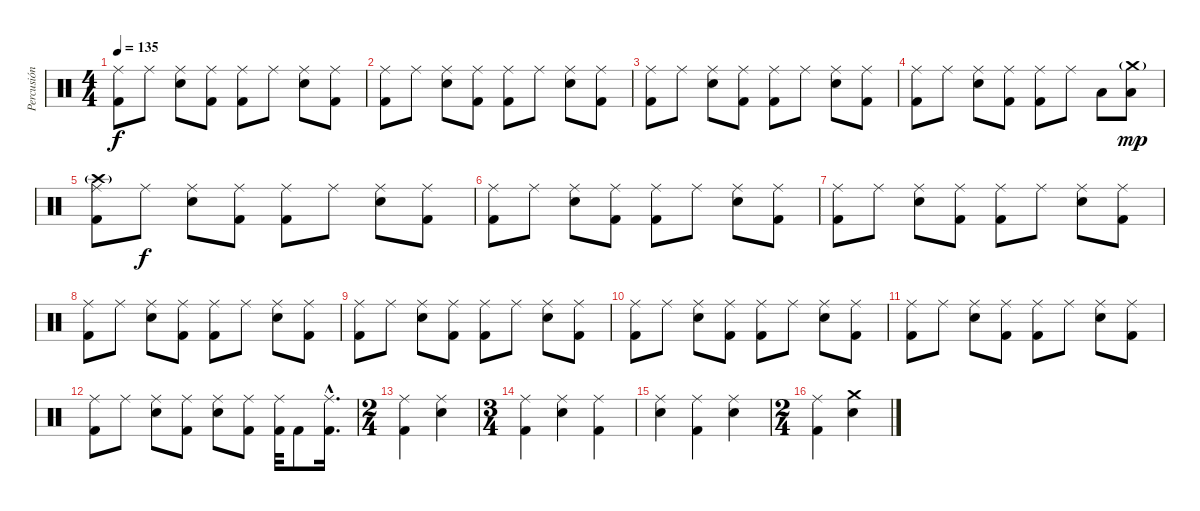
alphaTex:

\track ("Percusión" "Percusión") {instrument percussion}
\staff {score}
\articulation defaults
\ts (4 4)
\tempo 135
\clef neutral
\ks c
("Kick (hit) 2" "Ride (middle)").8{dy f} "Ride (middle)".8 ("Snare (hit) 2" "Ride (middle)").8 ("Kick (hit) 2" "Ride (middle)").8 ("Kick (hit) 2" "Ride (middle)").8 "Ride (middle)".8 ("Snare (hit) 2" "Ride (middle)").8 ("Kick (hit) 2" "Ride (middle)").8 |
("Kick (hit) 2" "Ride (middle)").8 "Ride (middle)".8 ("Snare (hit) 2" "Ride (middle)").8 ("Kick (hit) 2" "Ride (middle)").8 ("Kick (hit) 2" "Ride (middle)").8 "Ride (middle)".8 ("Snare (hit) 2" "Ride (middle)").8 ("Kick (hit) 2" "Ride (middle)").8 |
("Kick (hit) 2" "Ride (middle)").8 "Ride (middle)".8 ("Snare (hit) 2" "Ride (middle)").8 ("Kick (hit) 2" "Ride (middle)").8 ("Kick (hit) 2" "Ride (middle)").8 "Ride (middle)".8 ("Snare (hit) 2" "Ride (middle)").8 ("Kick (hit) 2" "Ride (middle)").8 |
("Kick (hit) 2" "Ride (middle)").8 "Ride (middle)".8 ("Snare (hit) 2" "Ride (middle)").8 ("Kick (hit) 2" "Ride (middle)").8 ("Kick (hit) 2" "Ride (middle)").8 "Ride (middle)".8 "Low Floor Tom (hit)".8 ("Low Floor Tom (hit)" "Crash medium (hit)"{g}).8{dy mp} |
("Kick (hit) 2" "Ride (middle)" "Crash high (hit)"{g}).8 "Ride (middle)".8{dy f} ("Snare (hit) 2" "Ride (middle)").8 ("Kick (hit) 2" "Ride (middle)").8 ("Kick (hit) 2" "Ride (middle)").8 "Ride (middle)".8 ("Snare (hit) 2" "Ride (middle)").8 ("Kick (hit) 2" "Ride (middle)").8 |
("Kick (hit) 2" "Ride (middle)").8 "Ride (middle)".8 ("Snare (hit) 2" "Ride (middle)").8 ("Kick (hit) 2" "Ride (middle)").8 ("Kick (hit) 2" "Ride (middle)").8 "Ride (middle)".8 ("Snare (hit) 2" "Ride (middle)").8 ("Kick (hit) 2" "Ride (middle)").8 |
("Kick (hit) 2" "Ride (middle)").8 "Ride (middle)".8 ("Snare (hit) 2" "Ride (middle)").8 ("Kick (hit) 2" "Ride (middle)").8 ("Kick (hit) 2" "Ride (middle)").8 "Ride (middle)".8 ("Snare (hit) 2" "Ride (middle)").8 ("Kick (hit) 2" "Ride (middle)").8 |
("Kick (hit) 2" "Ride (middle)").8 "Ride (middle)".8 ("Snare (hit) 2" "Ride (middle)").8 ("Kick (hit) 2" "Ride (middle)").8 ("Kick (hit) 2" "Ride (middle)").8 "Ride (middle)".8 ("Snare (hit) 2" "Ride (middle)").8 ("Kick (hit) 2" "Ride (middle)").8 |
("Kick (hit) 2" "Ride (middle)").8 "Ride (middle)".8 ("Snare (hit) 2" "Ride (middle)").8 ("Kick (hit) 2" "Ride (middle)").8 ("Kick (hit) 2" "Ride (middle)").8 "Ride (middle)".8 ("Snare (hit) 2" "Ride (middle)").8 ("Kick (hit) 2" "Ride (middle)").8 |
("Kick (hit) 2" "Ride (middle)").8 "Ride (middle)".8 ("Snare (hit) 2" "Ride (middle)").8 ("Kick (hit) 2" "Ride (middle)").8 ("Kick (hit) 2" "Ride (middle)").8 "Ride (middle)".8 ("Snare (hit) 2" "Ride (middle)").8 ("Kick (hit) 2" "Ride (middle)").8 |
("Kick (hit) 2" "Ride (middle)").8 "Ride (middle)".8 ("Snare (hit) 2" "Ride (middle)").8 ("Kick (hit) 2" "Ride (middle)").8 ("Kick (hit) 2" "Ride (middle)").8 "Ride (middle)".8 ("Snare (hit) 2" "Ride (middle)").8 ("Kick (hit) 2" "Ride (middle)").8 |
("Kick (hit) 2" "Ride (middle)").8 "Ride (middle)".8 ("Snare (hit) 2" "Ride (middle)").8 ("Kick (hit) 2" "Ride (middle)").8 ("Snare (hit) 2" "Ride (middle)").8 ("Kick (hit) 2" "Ride (middle)").8 ("Kick (hit) 2" "Ride (middle)").32 "Kick (hit) 2".8 ("Ride (middle)"{hac} "Kick (hit) 2"{hac}).16{d} |
\ts (2 4)
("Kick (hit) 2" "Ride (middle)").4 ("Snare (hit) 2" "Ride (middle)").4 |
\ts (3 4)
("Kick (hit) 2" "Ride (middle)").4 ("Snare (hit) 2" "Ride (middle)").4 ("Kick (hit) 2" "Ride (middle)").4 |
("Snare (hit) 2" "Ride (middle)").4 ("Kick (hit) 2" "Ride (middle)").4 ("Snare (hit) 2" "Ride (middle)").4 |
\ts (2 4)
("Kick (hit) 2" "Ride (middle)").4 ("Snare (hit) 2" "Crash medium (hit)").4
